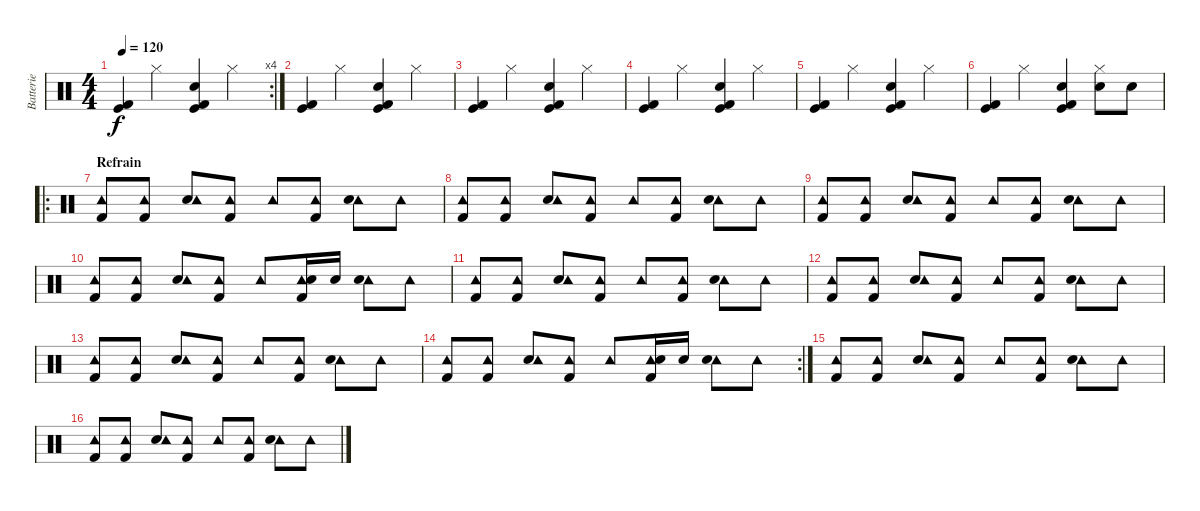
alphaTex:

\track ("Batterie" "Batterie") {instrument percussion}
\staff {score}
\articulation defaults
\rc 4
\ts (4 4)
\tempo 120
\clef neutral
\ks c
("Kick (hit) 2" "Kick (hit)").4{dy f} "Hi-Hat (closed)".4 ("Electric Snare (hit)" "Kick (hit) 2" "Kick (hit)").4 "Hi-Hat (closed)".4 |
("Kick (hit) 2" "Kick (hit)").4 "Hi-Hat (closed)".4 ("Electric Snare (hit)" "Kick (hit) 2" "Kick (hit)").4 "Hi-Hat (closed)".4 |
("Kick (hit) 2" "Kick (hit)").4 "Hi-Hat (closed)".4 ("Electric Snare (hit)" "Kick (hit) 2" "Kick (hit)").4 "Hi-Hat (closed)".4 |
("Kick (hit) 2" "Kick (hit)").4 "Hi-Hat (closed)".4 ("Electric Snare (hit)" "Kick (hit) 2" "Kick (hit)").4 "Hi-Hat (closed)".4 |
("Kick (hit) 2" "Kick (hit)").4 "Hi-Hat (closed)".4 ("Electric Snare (hit)" "Kick (hit) 2" "Kick (hit)").4 "Hi-Hat (closed)".4 |
("Kick (hit) 2" "Kick (hit)").4 "Hi-Hat (closed)".4 ("Electric Snare (hit)" "Kick (hit) 2" "Kick (hit)").4 ("Hi-Hat (closed)" "Electric Snare (hit)").8 "Electric Snare (hit)".8 |
\ro
\section ("" "Refrain")
("Kick (hit) 2" "Tambourine (hit)").8 ("Kick (hit) 2" "Tambourine (hit)").8 ("Snare (hit) 2" "Tambourine (hit)").8 ("Tambourine (hit)" "Kick (hit) 2").8 "Tambourine (hit)".8 ("Tambourine (hit)" "Kick (hit) 2").8 ("Tambourine (hit)" "Snare (hit) 2").8 "Tambourine (hit)".8 |
("Kick (hit) 2" "Tambourine (hit)").8 ("Kick (hit) 2" "Tambourine (hit)").8 ("Snare (hit) 2" "Tambourine (hit)").8 ("Tambourine (hit)" "Kick (hit) 2").8 "Tambourine (hit)".8 ("Tambourine (hit)" "Kick (hit) 2").8 ("Tambourine (hit)" "Snare (hit) 2").8 "Tambourine (hit)".8 |
("Kick (hit) 2" "Tambourine (hit)").8 ("Kick (hit) 2" "Tambourine (hit)").8 ("Snare (hit) 2" "Tambourine (hit)").8 ("Tambourine (hit)" "Kick (hit) 2").8 "Tambourine (hit)".8 ("Tambourine (hit)" "Kick (hit) 2").8 ("Tambourine (hit)" "Snare (hit) 2").8 "Tambourine (hit)".8 |
("Kick (hit) 2" "Tambourine (hit)").8 ("Kick (hit) 2" "Tambourine (hit)").8 ("Snare (hit) 2" "Tambourine (hit)").8 ("Tambourine (hit)" "Kick (hit) 2").8 "Tambourine (hit)".8 ("Tambourine (hit)" "Kick (hit) 2" "Snare (hit) 2").16 "Snare (hit) 2".16 ("Tambourine (hit)" "Snare (hit) 2").8 "Tambourine (hit)".8 |
("Kick (hit) 2" "Tambourine (hit)").8 ("Kick (hit) 2" "Tambourine (hit)").8 ("Snare (hit) 2" "Tambourine (hit)").8 ("Tambourine (hit)" "Kick (hit) 2").8 "Tambourine (hit)".8 ("Tambourine (hit)" "Kick (hit) 2").8 ("Tambourine (hit)" "Snare (hit) 2").8 "Tambourine (hit)".8 |
("Kick (hit) 2" "Tambourine (hit)").8 ("Kick (hit) 2" "Tambourine (hit)").8 ("Snare (hit) 2" "Tambourine (hit)").8 ("Tambourine (hit)" "Kick (hit) 2").8 "Tambourine (hit)".8 ("Tambourine (hit)" "Kick (hit) 2").8 ("Tambourine (hit)" "Snare (hit) 2").8 "Tambourine (hit)".8 |
("Kick (hit) 2" "Tambourine (hit)").8 ("Kick (hit) 2" "Tambourine (hit)").8 ("Snare (hit) 2" "Tambourine (hit)").8 ("Tambourine (hit)" "Kick (hit) 2").8 "Tambourine (hit)".8 ("Tambourine (hit)" "Kick (hit) 2").8 ("Tambourine (hit)" "Snare (hit) 2").8 "Tambourine (hit)".8 |
\rc 2
("Kick (hit) 2" "Tambourine (hit)").8 ("Kick (hit) 2" "Tambourine (hit)").8 ("Snare (hit) 2" "Tambourine (hit)").8 ("Tambourine (hit)" "Kick (hit) 2").8 "Tambourine (hit)".8 ("Tambourine (hit)" "Kick (hit) 2" "Snare (hit) 2").16 "Snare (hit) 2".16 ("Tambourine (hit)" "Snare (hit) 2").8 "Tambourine (hit)".8 |
("Kick (hit) 2" "Tambourine (hit)").8 ("Kick (hit) 2" "Tambourine (hit)").8 ("Snare (hit) 2" "Tambourine (hit)").8 ("Tambourine (hit)" "Kick (hit) 2").8 "Tambourine (hit)".8 ("Tambourine (hit)" "Kick (hit) 2").8 ("Tambourine (hit)" "Snare (hit) 2").8 "Tambourine (hit)".8 |
("Kick (hit) 2" "Tambourine (hit)").8 ("Kick (hit) 2" "Tambourine (hit)").8 ("Snare (hit) 2" "Tambourine (hit)").8 ("Tambourine (hit)" "Kick (hit) 2").8 "Tambourine (hit)".8 ("Tambourine (hit)" "Kick (hit) 2").8 ("Tambourine (hit)" "Snare (hit) 2").8 "Tambourine (hit)".8
